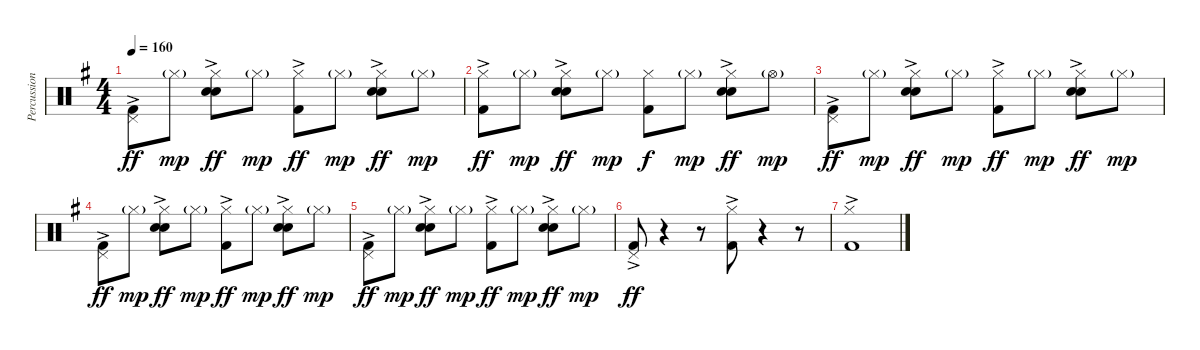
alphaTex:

\track ("Percussion" "Percussion") {instrument percussion}
\staff {score}
\articulation defaults
\ts (4 4)
\tempo 160
\clef neutral
\ks g
("Pedal Hi-Hat (hit)" "Kick (hit) 2"{ac}).8{dy ff} "Hi-Hat (closed)"{g}.8{dy mp} ("Hi-Hat (closed)" "Electric Snare (hit)"{ac} "Snare (hit) 2").8{dy ff} "Hi-Hat (closed)"{g}.8{dy mp} ("Hi-Hat (closed)" "Kick (hit) 2"{ac}).8{dy ff} "Hi-Hat (closed)"{g}.8{dy mp} ("Hi-Hat (closed)" "Electric Snare (hit)"{ac} "Snare (hit) 2").8{dy ff} "Hi-Hat (closed)"{g}.8{dy mp} |
("Hi-Hat (closed)" "Kick (hit) 2"{ac}).8{dy ff} "Hi-Hat (closed)"{g}.8{dy mp} ("Hi-Hat (closed)" "Electric Snare (hit)"{ac} "Snare (hit) 2").8{dy ff} "Hi-Hat (closed)"{g}.8{dy mp} ("Hi-Hat (closed)" "Kick (hit) 2").8{dy f} "Hi-Hat (closed)"{g}.8{dy mp} ("Hi-Hat (closed)" "Electric Snare (hit)"{ac} "Snare (hit) 2").8{dy ff} "Hi-Hat (open)"{g}.8{dy mp} |
("Pedal Hi-Hat (hit)" "Kick (hit) 2"{ac}).8{dy ff} "Hi-Hat (closed)"{g}.8{dy mp} ("Hi-Hat (closed)" "Electric Snare (hit)"{ac} "Snare (hit) 2").8{dy ff} "Hi-Hat (closed)"{g}.8{dy mp} ("Hi-Hat (closed)" "Kick (hit) 2"{ac}).8{dy ff} "Hi-Hat (closed)"{g}.8{dy mp} ("Hi-Hat (closed)" "Electric Snare (hit)"{ac} "Snare (hit) 2").8{dy ff} "Hi-Hat (closed)"{g}.8{dy mp} |
("Pedal Hi-Hat (hit)" "Kick (hit) 2"{ac}).8{dy ff} "Hi-Hat (closed)"{g}.8{dy mp} ("Hi-Hat (closed)" "Electric Snare (hit)"{ac} "Snare (hit) 2").8{dy ff} "Hi-Hat (closed)"{g}.8{dy mp} ("Hi-Hat (closed)" "Kick (hit) 2"{ac}).8{dy ff} "Hi-Hat (closed)"{g}.8{dy mp} ("Hi-Hat (closed)" "Electric Snare (hit)"{ac} "Snare (hit) 2").8{dy ff} "Hi-Hat (closed)"{g}.8{dy mp} |
("Pedal Hi-Hat (hit)" "Kick (hit) 2"{ac}).8{dy ff} "Hi-Hat (closed)"{g}.8{dy mp} ("Hi-Hat (closed)" "Electric Snare (hit)"{ac} "Snare (hit) 2").8{dy ff} "Hi-Hat (closed)"{g}.8{dy mp} ("Hi-Hat (closed)" "Kick (hit) 2"{ac}).8{dy ff} "Hi-Hat (closed)"{g}.8{dy mp} ("Hi-Hat (closed)" "Electric Snare (hit)"{ac} "Snare (hit) 2").8{dy ff} "Hi-Hat (closed)"{g}.8{dy mp} |
("Pedal Hi-Hat (hit)" "Kick (hit) 2"{ac}).8{dy ff} r.4 r.8 ("Hi-Hat (closed)" "Kick (hit) 2"{ac}).8 r.4 r.8 |
("Hi-Hat (closed)" "Kick (hit) 2"{ac}).1
